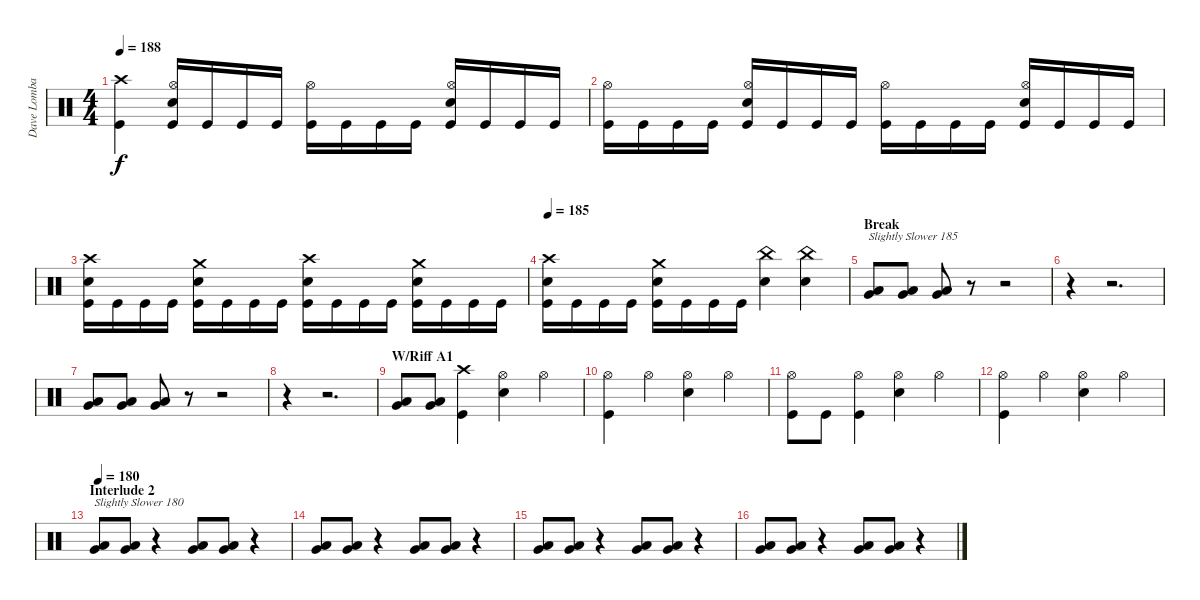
\track ("Dave Lombardo" "Dave Lomba") {instrument percussion}
\staff {score}
\articulation defaults
\ts (4 4)
\tempo 188
\clef neutral
\ks c
("Crash high (hit)" "Kick (hit)").4{dy f} ("Hi-Hat (open)" "Snare (hit) 2" "Kick (hit)").16 "Kick (hit)".16 "Kick (hit)".16 "Kick (hit)".16 ("Hi-Hat (open)" "Kick (hit)").16 "Kick (hit)".16 "Kick (hit)".16 "Kick (hit)".16 ("Hi-Hat (open)" "Snare (hit) 2" "Kick (hit)").16 "Kick (hit)".16 "Kick (hit)".16 "Kick (hit)".16 |
("Hi-Hat (open)" "Kick (hit)").16 "Kick (hit)".16 "Kick (hit)".16 "Kick (hit)".16 ("Hi-Hat (open)" "Snare (hit) 2" "Kick (hit)").16 "Kick (hit)".16 "Kick (hit)".16 "Kick (hit)".16 ("Hi-Hat (open)" "Kick (hit)").16 "Kick (hit)".16 "Kick (hit)".16 "Kick (hit)".16 ("Hi-Hat (open)" "Snare (hit) 2" "Kick (hit)").16 "Kick (hit)".16 "Kick (hit)".16 "Kick (hit)".16 |
("Crash high (hit)" "Snare (hit) 2" "Kick (hit)").16 "Kick (hit)".16 "Kick (hit)".16 "Kick (hit)".16 ("Crash medium (hit)" "Snare (hit) 2" "Kick (hit)").16 "Kick (hit)".16 "Kick (hit)".16 "Kick (hit)".16 ("Crash high (hit)" "Snare (hit) 2" "Kick (hit)").16 "Kick (hit)".16 "Kick (hit)".16 "Kick (hit)".16 ("Crash medium (hit)" "Snare (hit) 2" "Kick (hit)").16 "Kick (hit)".16 "Kick (hit)".16 "Kick (hit)".16 |
\tempo 185
("Crash high (hit)" "Snare (hit) 2" "Kick (hit)").16 "Kick (hit)".16 "Kick (hit)".16 "Kick (hit)".16 ("Crash medium (hit)" "Snare (hit) 2" "Kick (hit)").16 "Kick (hit)".16 "Kick (hit)".16 "Kick (hit)".16 ("China (hit)" "Snare (hit) 2").4 ("China (hit)" "Snare (hit) 2").4 |
\section ("" "Break")
("Very Low Tom (hit)" "Low Floor Tom (hit)").8{txt "Slightly Slower 185"} ("Very Low Tom (hit)" "Low Floor Tom (hit)").8 ("Very Low Tom (hit)" "Low Floor Tom (hit)").8 r.8 r.2 |
r.4 r.2{d} |
("Very Low Tom (hit)" "Low Floor Tom (hit)").8 ("Very Low Tom (hit)" "Low Floor Tom (hit)").8 ("Very Low Tom (hit)" "Low Floor Tom (hit)").8 r.8 r.2 |
r.4 r.2{d} |
\section ("" "W/Riff A1")
("Very Low Tom (hit)" "Low Floor Tom (hit)").8 ("Very Low Tom (hit)" "Low Floor Tom (hit)").8 ("Crash high (hit)" "Kick (hit)").4 ("Hi-Hat (open)" "Snare (hit) 2").4 "Hi-Hat (open)".4 |
("Hi-Hat (open)" "Kick (hit)").4 "Hi-Hat (open)".4 ("Hi-Hat (open)" "Snare (hit) 2").4 "Hi-Hat (open)".4 |
("Hi-Hat (open)" "Kick (hit)").8 "Kick (hit)".8 ("Hi-Hat (open)" "Kick (hit)").4 ("Hi-Hat (open)" "Snare (hit) 2").4 "Hi-Hat (open)".4 |
("Hi-Hat (open)" "Kick (hit)").4 "Hi-Hat (open)".4 ("Hi-Hat (open)" "Snare (hit) 2").4 "Hi-Hat (open)".4 |
\section ("" "Interlude 2")
\tempo 180
("Very Low Tom (hit)" "Low Floor Tom (hit)").8{txt "Slightly Slower 180"} ("Very Low Tom (hit)" "Low Floor Tom (hit)").8 r.4 ("Very Low Tom (hit)" "Low Floor Tom (hit)").8 ("Very Low Tom (hit)" "Low Floor Tom (hit)").8 r.4 |
("Very Low Tom (hit)" "Low Floor Tom (hit)").8 ("Very Low Tom (hit)" "Low Floor Tom (hit)").8 r.4 ("Very Low Tom (hit)" "Low Floor Tom (hit)").8 ("Very Low Tom (hit)" "Low Floor Tom (hit)").8 r.4 |
("Very Low Tom (hit)" "Low Floor Tom (hit)").8 ("Very Low Tom (hit)" "Low Floor Tom (hit)").8 r.4 ("Very Low Tom (hit)" "Low Floor Tom (hit)").8 ("Very Low Tom (hit)" "Low Floor Tom (hit)").8 r.4 |
("Very Low Tom (hit)" "Low Floor Tom (hit)").8 ("Very Low Tom (hit)" "Low Floor Tom (hit)").8 r.4 ("Very Low Tom (hit)" "Low Floor Tom (hit)").8 ("Very Low Tom (hit)" "Low Floor Tom (hit)").8 r.4
